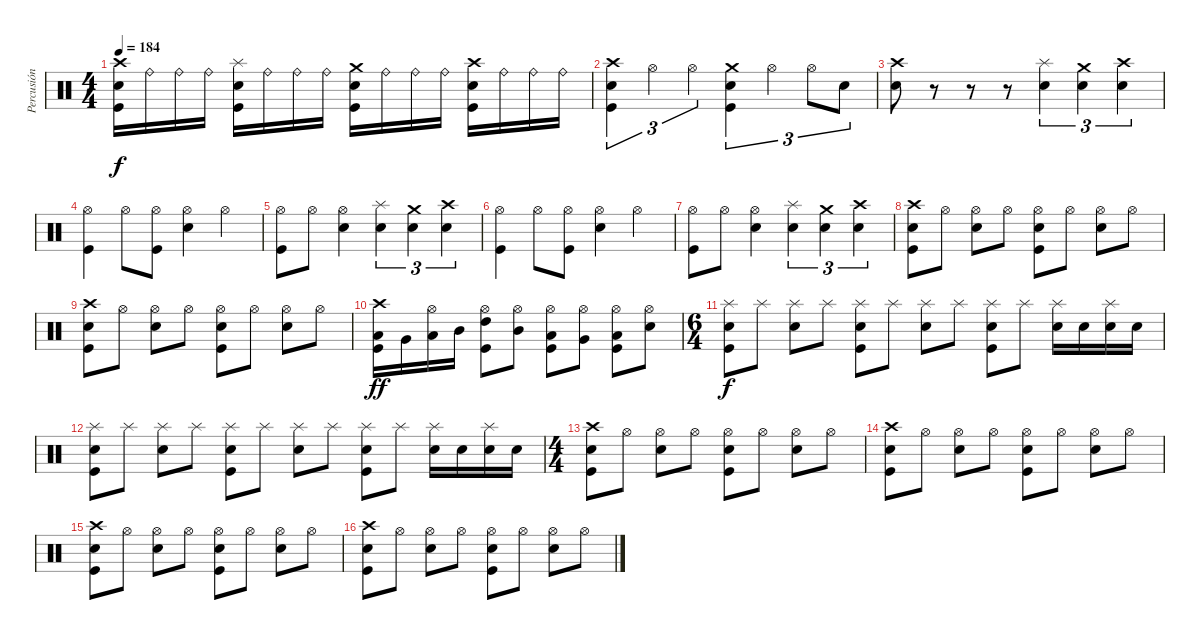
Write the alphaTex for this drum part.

\track ("Percusión" "Percusión") {instrument percussion}
\staff {score}
\articulation defaults
\ts (4 4)
\tempo 184
\clef neutral
\ks c
("Crash high (hit)" "Electric Snare (hit)" "Kick (hit)").16{dy f} "Ride (bell)".16 "Ride (bell)".16 "Ride (bell)".16 ("Splash (hit)" "Electric Snare (hit)" "Kick (hit)").16 "Ride (bell)".16 "Ride (bell)".16 "Ride (bell)".16 ("Crash medium (hit)" "Electric Snare (hit)" "Kick (hit)").16 "Ride (bell)".16 "Ride (bell)".16 "Ride (bell)".16 ("Crash high (hit)" "Electric Snare (hit)" "Kick (hit)").16 "Ride (bell)".16 "Ride (bell)".16 "Ride (bell)".16 |
("Crash high (hit)" "Electric Snare (hit)" "Kick (hit)").4{tu (3 2)} "Hi-Hat (open)".4{tu (3 2)} "Hi-Hat (open)".4{tu (3 2)} ("Crash medium (hit)" "Electric Snare (hit)" "Kick (hit)").4{tu (3 2)} "Hi-Hat (open)".4{tu (3 2)} "Hi-Hat (open)".8{tu (3 2)} "Electric Snare (hit)".8{tu (3 2)} |
("Crash high (hit)" "Electric Snare (hit)").8 r.8 r.8 r.8 ("Splash (hit)" "Electric Snare (hit)").4{tu (3 2)} ("Crash medium (hit)" "Electric Snare (hit)").4{tu (3 2)} ("Crash high (hit)" "Electric Snare (hit)").4{tu (3 2)} |
("Hi-Hat (open)" "Kick (hit)").4 "Hi-Hat (open)".8 ("Hi-Hat (open)" "Kick (hit)").8 ("Hi-Hat (open)" "Electric Snare (hit)").4 "Hi-Hat (open)".4 |
("Hi-Hat (open)" "Kick (hit)").8 "Hi-Hat (open)".8 ("Hi-Hat (open)" "Electric Snare (hit)").4 ("Splash (hit)" "Electric Snare (hit)").4{tu (3 2)} ("Crash medium (hit)" "Electric Snare (hit)").4{tu (3 2)} ("Crash high (hit)" "Electric Snare (hit)").4{tu (3 2)} |
("Hi-Hat (open)" "Kick (hit)").4 "Hi-Hat (open)".8 ("Hi-Hat (open)" "Kick (hit)").8 ("Hi-Hat (open)" "Electric Snare (hit)").4 "Hi-Hat (open)".4 |
("Hi-Hat (open)" "Kick (hit)").8 "Hi-Hat (open)".8 ("Hi-Hat (open)" "Electric Snare (hit)").4 ("Splash (hit)" "Electric Snare (hit)").4{tu (3 2)} ("Crash medium (hit)" "Electric Snare (hit)").4{tu (3 2)} ("Crash high (hit)" "Electric Snare (hit)").4{tu (3 2)} |
("Crash high (hit)" "Electric Snare (hit)" "Kick (hit)").8 "Hi-Hat (open)".8 ("Hi-Hat (open)" "Electric Snare (hit)").8 "Hi-Hat (open)".8 ("Hi-Hat (open)" "Electric Snare (hit)" "Kick (hit)").8 "Hi-Hat (open)".8 ("Hi-Hat (open)" "Electric Snare (hit)").8 "Hi-Hat (open)".8 |
("Crash high (hit)" "Electric Snare (hit)" "Kick (hit)").8 "Hi-Hat (open)".8 ("Hi-Hat (open)" "Electric Snare (hit)").8 "Hi-Hat (open)".8 ("Hi-Hat (open)" "Electric Snare (hit)" "Kick (hit)").8 "Hi-Hat (open)".8 ("Hi-Hat (open)" "Electric Snare (hit)").8 "Hi-Hat (open)".8 |
("Crash high (hit)" "Low Floor Tom (hit)" "Kick (hit)").16{dy ff} "Very Low Tom (hit)".16 ("Hi-Hat (open)" "Low Tom (hit)").16 "Mid Tom (hit)".16 ("Hi-Hat (open)" "High Tom (hit)" "Kick (hit)").8 ("Hi-Hat (open)" "Mid Tom (hit)").8 ("Hi-Hat (open)" "Low Tom (hit)" "Kick (hit)").8 ("Hi-Hat (open)" "Very Low Tom (hit)").8 ("Hi-Hat (open)" "Low Floor Tom (hit)" "Kick (hit)").8 ("Hi-Hat (open)" "Electric Snare (hit)").8 |
\ts (6 4)
("Splash (hit)" "Electric Snare (hit)" "Kick (hit)").8{dy f} "Splash (hit)".8 ("Splash (hit)" "Electric Snare (hit)").8 "Splash (hit)".8 ("Splash (hit)" "Electric Snare (hit)" "Kick (hit)").8 "Splash (hit)".8 ("Splash (hit)" "Electric Snare (hit)").8 "Splash (hit)".8 ("Splash (hit)" "Electric Snare (hit)" "Kick (hit)").8 "Splash (hit)".8 ("Splash (hit)" "Electric Snare (hit)").16 "Electric Snare (hit)".16 ("Splash (hit)" "Electric Snare (hit)").16 "Electric Snare (hit)".16 |
("Splash (hit)" "Electric Snare (hit)" "Kick (hit)").8 "Splash (hit)".8 ("Splash (hit)" "Electric Snare (hit)").8 "Splash (hit)".8 ("Splash (hit)" "Electric Snare (hit)" "Kick (hit)").8 "Splash (hit)".8 ("Splash (hit)" "Electric Snare (hit)").8 "Splash (hit)".8 ("Splash (hit)" "Electric Snare (hit)" "Kick (hit)").8 "Splash (hit)".8 ("Splash (hit)" "Electric Snare (hit)").16 "Electric Snare (hit)".16 ("Splash (hit)" "Electric Snare (hit)").16 "Electric Snare (hit)".16 |
\ts (4 4)
("Crash high (hit)" "Electric Snare (hit)" "Kick (hit)").8 "Hi-Hat (open)".8 ("Hi-Hat (open)" "Electric Snare (hit)").8 "Hi-Hat (open)".8 ("Hi-Hat (open)" "Electric Snare (hit)" "Kick (hit)").8 "Hi-Hat (open)".8 ("Hi-Hat (open)" "Electric Snare (hit)").8 "Hi-Hat (open)".8 |
("Crash high (hit)" "Electric Snare (hit)" "Kick (hit)").8 "Hi-Hat (open)".8 ("Hi-Hat (open)" "Electric Snare (hit)").8 "Hi-Hat (open)".8 ("Hi-Hat (open)" "Electric Snare (hit)" "Kick (hit)").8 "Hi-Hat (open)".8 ("Hi-Hat (open)" "Electric Snare (hit)").8 "Hi-Hat (open)".8 |
("Crash high (hit)" "Electric Snare (hit)" "Kick (hit)").8 "Hi-Hat (open)".8 ("Hi-Hat (open)" "Electric Snare (hit)").8 "Hi-Hat (open)".8 ("Hi-Hat (open)" "Electric Snare (hit)" "Kick (hit)").8 "Hi-Hat (open)".8 ("Hi-Hat (open)" "Electric Snare (hit)").8 "Hi-Hat (open)".8 |
("Crash high (hit)" "Electric Snare (hit)" "Kick (hit)").8 "Hi-Hat (open)".8 ("Hi-Hat (open)" "Electric Snare (hit)").8 "Hi-Hat (open)".8 ("Hi-Hat (open)" "Electric Snare (hit)" "Kick (hit)").8 "Hi-Hat (open)".8 ("Hi-Hat (open)" "Electric Snare (hit)").8 "Hi-Hat (open)".8
